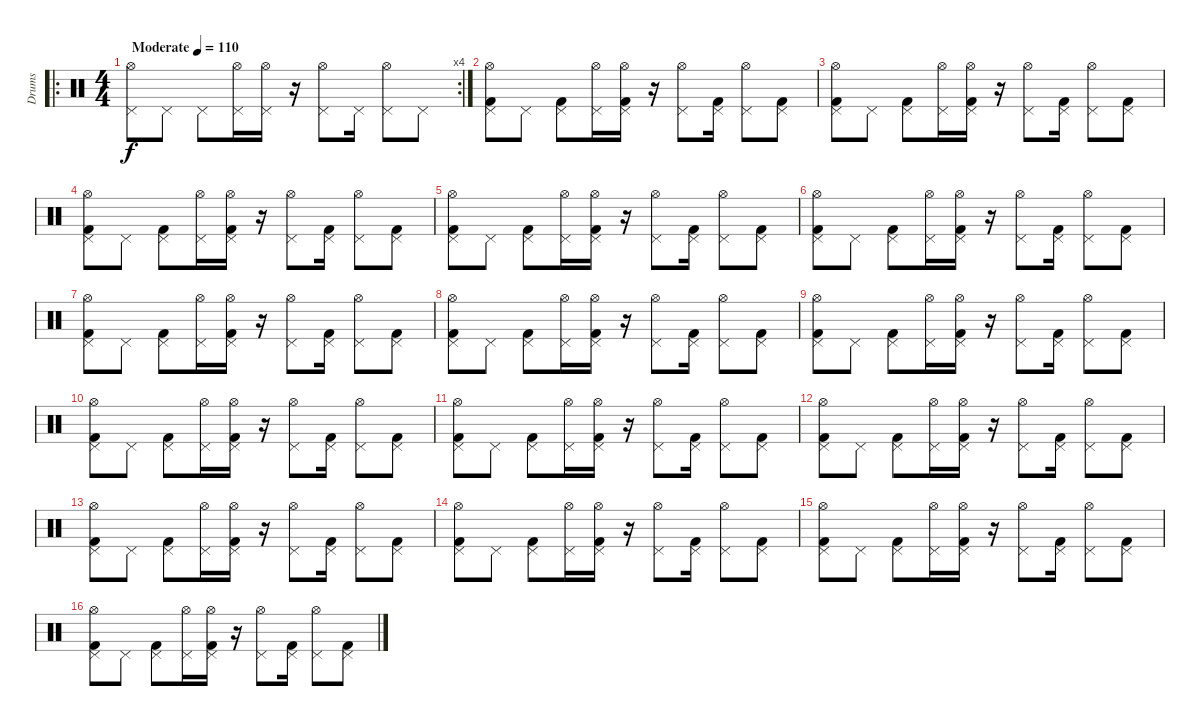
\track ("Drums" "Drums") {instrument percussion}
\staff {score}
\articulation defaults
\ro
\rc 4
\ts (4 4)
\tempo (110 "Moderate")
\clef neutral
\ks c
("Hi-Hat (open)" "Pedal Hi-Hat (hit)").8{dy f} "Pedal Hi-Hat (hit)".8 "Pedal Hi-Hat (hit)".8 ("Hi-Hat (open)" "Pedal Hi-Hat (hit)").16 ("Hi-Hat (open)" "Pedal Hi-Hat (hit)").16 r.16 ("Hi-Hat (open)" "Pedal Hi-Hat (hit)").8 "Pedal Hi-Hat (hit)".16 ("Hi-Hat (open)" "Pedal Hi-Hat (hit)").8 "Pedal Hi-Hat (hit)".8 |
("Kick (hit) 2" "Hi-Hat (open)" "Pedal Hi-Hat (hit)").8 "Pedal Hi-Hat (hit)".8 ("Kick (hit) 2" "Pedal Hi-Hat (hit)").8 ("Hi-Hat (open)" "Pedal Hi-Hat (hit)").16 ("Kick (hit) 2" "Hi-Hat (open)" "Pedal Hi-Hat (hit)").16 r.16 ("Hi-Hat (open)" "Pedal Hi-Hat (hit)").8 ("Kick (hit) 2" "Pedal Hi-Hat (hit)").16 ("Hi-Hat (open)" "Pedal Hi-Hat (hit)").8 ("Kick (hit) 2" "Pedal Hi-Hat (hit)").8 |
("Kick (hit) 2" "Hi-Hat (open)" "Pedal Hi-Hat (hit)").8 "Pedal Hi-Hat (hit)".8 ("Kick (hit) 2" "Pedal Hi-Hat (hit)").8 ("Hi-Hat (open)" "Pedal Hi-Hat (hit)").16 ("Kick (hit) 2" "Hi-Hat (open)" "Pedal Hi-Hat (hit)").16 r.16 ("Hi-Hat (open)" "Pedal Hi-Hat (hit)").8 ("Kick (hit) 2" "Pedal Hi-Hat (hit)").16 ("Hi-Hat (open)" "Pedal Hi-Hat (hit)").8 ("Kick (hit) 2" "Pedal Hi-Hat (hit)").8 |
("Kick (hit) 2" "Hi-Hat (open)" "Pedal Hi-Hat (hit)").8 "Pedal Hi-Hat (hit)".8 ("Kick (hit) 2" "Pedal Hi-Hat (hit)").8 ("Hi-Hat (open)" "Pedal Hi-Hat (hit)").16 ("Kick (hit) 2" "Hi-Hat (open)" "Pedal Hi-Hat (hit)").16 r.16 ("Hi-Hat (open)" "Pedal Hi-Hat (hit)").8 ("Kick (hit) 2" "Pedal Hi-Hat (hit)").16 ("Hi-Hat (open)" "Pedal Hi-Hat (hit)").8 ("Kick (hit) 2" "Pedal Hi-Hat (hit)").8 |
("Kick (hit) 2" "Hi-Hat (open)" "Pedal Hi-Hat (hit)").8 "Pedal Hi-Hat (hit)".8 ("Kick (hit) 2" "Pedal Hi-Hat (hit)").8 ("Hi-Hat (open)" "Pedal Hi-Hat (hit)").16 ("Kick (hit) 2" "Hi-Hat (open)" "Pedal Hi-Hat (hit)").16 r.16 ("Hi-Hat (open)" "Pedal Hi-Hat (hit)").8 ("Kick (hit) 2" "Pedal Hi-Hat (hit)").16 ("Hi-Hat (open)" "Pedal Hi-Hat (hit)").8 ("Kick (hit) 2" "Pedal Hi-Hat (hit)").8 |
("Kick (hit) 2" "Hi-Hat (open)" "Pedal Hi-Hat (hit)").8 "Pedal Hi-Hat (hit)".8 ("Kick (hit) 2" "Pedal Hi-Hat (hit)").8 ("Hi-Hat (open)" "Pedal Hi-Hat (hit)").16 ("Kick (hit) 2" "Hi-Hat (open)" "Pedal Hi-Hat (hit)").16 r.16 ("Hi-Hat (open)" "Pedal Hi-Hat (hit)").8 ("Kick (hit) 2" "Pedal Hi-Hat (hit)").16 ("Hi-Hat (open)" "Pedal Hi-Hat (hit)").8 ("Kick (hit) 2" "Pedal Hi-Hat (hit)").8 |
("Kick (hit) 2" "Hi-Hat (open)" "Pedal Hi-Hat (hit)").8 "Pedal Hi-Hat (hit)".8 ("Kick (hit) 2" "Pedal Hi-Hat (hit)").8 ("Hi-Hat (open)" "Pedal Hi-Hat (hit)").16 ("Kick (hit) 2" "Hi-Hat (open)" "Pedal Hi-Hat (hit)").16 r.16 ("Hi-Hat (open)" "Pedal Hi-Hat (hit)").8 ("Kick (hit) 2" "Pedal Hi-Hat (hit)").16 ("Hi-Hat (open)" "Pedal Hi-Hat (hit)").8 ("Kick (hit) 2" "Pedal Hi-Hat (hit)").8 |
("Kick (hit) 2" "Hi-Hat (open)" "Pedal Hi-Hat (hit)").8 "Pedal Hi-Hat (hit)".8 ("Kick (hit) 2" "Pedal Hi-Hat (hit)").8 ("Hi-Hat (open)" "Pedal Hi-Hat (hit)").16 ("Kick (hit) 2" "Hi-Hat (open)" "Pedal Hi-Hat (hit)").16 r.16 ("Hi-Hat (open)" "Pedal Hi-Hat (hit)").8 ("Kick (hit) 2" "Pedal Hi-Hat (hit)").16 ("Hi-Hat (open)" "Pedal Hi-Hat (hit)").8 ("Kick (hit) 2" "Pedal Hi-Hat (hit)").8 |
("Kick (hit) 2" "Hi-Hat (open)" "Pedal Hi-Hat (hit)").8 "Pedal Hi-Hat (hit)".8 ("Kick (hit) 2" "Pedal Hi-Hat (hit)").8 ("Hi-Hat (open)" "Pedal Hi-Hat (hit)").16 ("Kick (hit) 2" "Hi-Hat (open)" "Pedal Hi-Hat (hit)").16 r.16 ("Hi-Hat (open)" "Pedal Hi-Hat (hit)").8 ("Kick (hit) 2" "Pedal Hi-Hat (hit)").16 ("Hi-Hat (open)" "Pedal Hi-Hat (hit)").8 ("Kick (hit) 2" "Pedal Hi-Hat (hit)").8 |
("Kick (hit) 2" "Hi-Hat (open)" "Pedal Hi-Hat (hit)").8 "Pedal Hi-Hat (hit)".8 ("Kick (hit) 2" "Pedal Hi-Hat (hit)").8 ("Hi-Hat (open)" "Pedal Hi-Hat (hit)").16 ("Kick (hit) 2" "Hi-Hat (open)" "Pedal Hi-Hat (hit)").16 r.16 ("Hi-Hat (open)" "Pedal Hi-Hat (hit)").8 ("Kick (hit) 2" "Pedal Hi-Hat (hit)").16 ("Hi-Hat (open)" "Pedal Hi-Hat (hit)").8 ("Kick (hit) 2" "Pedal Hi-Hat (hit)").8 |
("Kick (hit) 2" "Hi-Hat (open)" "Pedal Hi-Hat (hit)").8 "Pedal Hi-Hat (hit)".8 ("Kick (hit) 2" "Pedal Hi-Hat (hit)").8 ("Hi-Hat (open)" "Pedal Hi-Hat (hit)").16 ("Kick (hit) 2" "Hi-Hat (open)" "Pedal Hi-Hat (hit)").16 r.16 ("Hi-Hat (open)" "Pedal Hi-Hat (hit)").8 ("Kick (hit) 2" "Pedal Hi-Hat (hit)").16 ("Hi-Hat (open)" "Pedal Hi-Hat (hit)").8 ("Kick (hit) 2" "Pedal Hi-Hat (hit)").8 |
("Kick (hit) 2" "Hi-Hat (open)" "Pedal Hi-Hat (hit)").8 "Pedal Hi-Hat (hit)".8 ("Kick (hit) 2" "Pedal Hi-Hat (hit)").8 ("Hi-Hat (open)" "Pedal Hi-Hat (hit)").16 ("Kick (hit) 2" "Hi-Hat (open)" "Pedal Hi-Hat (hit)").16 r.16 ("Hi-Hat (open)" "Pedal Hi-Hat (hit)").8 ("Kick (hit) 2" "Pedal Hi-Hat (hit)").16 ("Hi-Hat (open)" "Pedal Hi-Hat (hit)").8 ("Kick (hit) 2" "Pedal Hi-Hat (hit)").8 |
("Kick (hit) 2" "Hi-Hat (open)" "Pedal Hi-Hat (hit)").8 "Pedal Hi-Hat (hit)".8 ("Kick (hit) 2" "Pedal Hi-Hat (hit)").8 ("Hi-Hat (open)" "Pedal Hi-Hat (hit)").16 ("Kick (hit) 2" "Hi-Hat (open)" "Pedal Hi-Hat (hit)").16 r.16 ("Hi-Hat (open)" "Pedal Hi-Hat (hit)").8 ("Kick (hit) 2" "Pedal Hi-Hat (hit)").16 ("Hi-Hat (open)" "Pedal Hi-Hat (hit)").8 ("Kick (hit) 2" "Pedal Hi-Hat (hit)").8 |
("Kick (hit) 2" "Hi-Hat (open)" "Pedal Hi-Hat (hit)").8 "Pedal Hi-Hat (hit)".8 ("Kick (hit) 2" "Pedal Hi-Hat (hit)").8 ("Hi-Hat (open)" "Pedal Hi-Hat (hit)").16 ("Kick (hit) 2" "Hi-Hat (open)" "Pedal Hi-Hat (hit)").16 r.16 ("Hi-Hat (open)" "Pedal Hi-Hat (hit)").8 ("Kick (hit) 2" "Pedal Hi-Hat (hit)").16 ("Hi-Hat (open)" "Pedal Hi-Hat (hit)").8 ("Kick (hit) 2" "Pedal Hi-Hat (hit)").8 |
("Kick (hit) 2" "Hi-Hat (open)" "Pedal Hi-Hat (hit)").8 "Pedal Hi-Hat (hit)".8 ("Kick (hit) 2" "Pedal Hi-Hat (hit)").8 ("Hi-Hat (open)" "Pedal Hi-Hat (hit)").16 ("Kick (hit) 2" "Hi-Hat (open)" "Pedal Hi-Hat (hit)").16 r.16 ("Hi-Hat (open)" "Pedal Hi-Hat (hit)").8 ("Kick (hit) 2" "Pedal Hi-Hat (hit)").16 ("Hi-Hat (open)" "Pedal Hi-Hat (hit)").8 ("Kick (hit) 2" "Pedal Hi-Hat (hit)").8 |
("Kick (hit) 2" "Hi-Hat (open)" "Pedal Hi-Hat (hit)").8 "Pedal Hi-Hat (hit)".8 ("Kick (hit) 2" "Pedal Hi-Hat (hit)").8 ("Hi-Hat (open)" "Pedal Hi-Hat (hit)").16 ("Kick (hit) 2" "Hi-Hat (open)" "Pedal Hi-Hat (hit)").16 r.16 ("Hi-Hat (open)" "Pedal Hi-Hat (hit)").8 ("Kick (hit) 2" "Pedal Hi-Hat (hit)").16 ("Hi-Hat (open)" "Pedal Hi-Hat (hit)").8 ("Kick (hit) 2" "Pedal Hi-Hat (hit)").8
